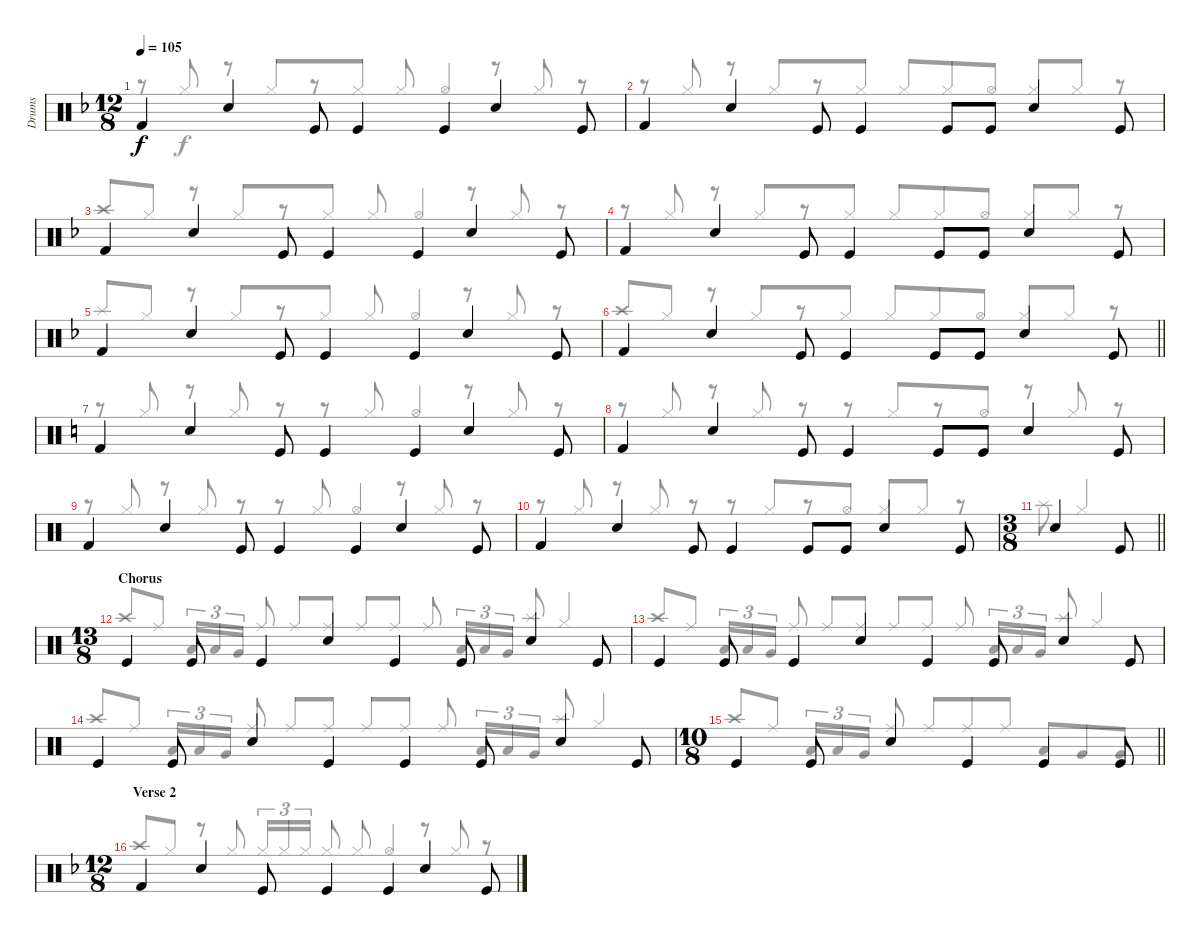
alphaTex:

\track ("Drums" "Drums") {instrument percussion}
\staff {score}
\articulation defaults
\voice
\ts (12 8)
\tempo 105
\clef neutral
\ks dminor "Kick (hit) 2".4{dy f} "Snare (hit) 2".4 "Kick (hit)".8 "Kick (hit)".4 "Kick (hit)".4 "Snare (hit) 2".4 "Kick (hit)".8
|
"Kick (hit) 2".4 "Snare (hit) 2".4 "Kick (hit)".8 "Kick (hit)".4 "Kick (hit)".8 "Kick (hit)".8 "Snare (hit) 2".4 "Kick (hit)".8 |
"Kick (hit) 2".4 "Snare (hit) 2".4 "Kick (hit)".8 "Kick (hit)".4 "Kick (hit)".4 "Snare (hit) 2".4 "Kick (hit)".8 |
"Kick (hit) 2".4 "Snare (hit) 2".4 "Kick (hit)".8 "Kick (hit)".4 "Kick (hit)".8 "Kick (hit)".8 "Snare (hit) 2".4 "Kick (hit)".8 |
"Kick (hit) 2".4 "Snare (hit) 2".4 "Kick (hit)".8 "Kick (hit)".4 "Kick (hit)".4 "Snare (hit) 2".4 "Kick (hit)".8 |
\barLineRight lightlight "Kick (hit) 2".4 "Snare (hit) 2".4 "Kick (hit)".8 "Kick (hit)".4 "Kick (hit)".8 "Kick (hit)".8 "Snare (hit) 2".4 "Kick (hit)".8
|
\ks aminor "Kick (hit) 2".4 "Snare (hit) 2".4 "Kick (hit)".8 "Kick (hit)".4 "Kick (hit)".4 "Snare (hit) 2".4 "Kick (hit)".8
|
"Kick (hit) 2".4 "Snare (hit) 2".4 "Kick (hit)".8 "Kick (hit)".4 "Kick (hit)".8 "Kick (hit)".8 "Snare (hit) 2".4 "Kick (hit)".8 |
"Kick (hit) 2".4{volume 12} "Snare (hit) 2".4 "Kick (hit)".8 "Kick (hit)".4 "Kick (hit)".4 "Snare (hit) 2".4 "Kick (hit)".8 |
"Kick (hit) 2".4 "Snare (hit) 2".4 "Kick (hit)".8 "Kick (hit)".4 "Kick (hit)".8 "Kick (hit)".8 "Snare (hit) 2".4 "Kick (hit)".8 |
\ts (3 8)
\barLineRight lightlight "Snare (hit) 2".4 "Kick (hit)".8
|
\ts (13 8)
\section ("" "Chorus")
"Kick (hit)".4 "Kick (hit)".8 "Kick (hit)".4 "Snare (hit) 2".4 "Kick (hit)".4 "Kick (hit)".8 "Snare (hit) 2".4 "Kick (hit)".8 |
"Kick (hit)".4 "Kick (hit)".8 "Kick (hit)".4 "Snare (hit) 2".4 "Kick (hit)".4 "Kick (hit)".8 "Snare (hit) 2".4 "Kick (hit)".8 |
"Kick (hit)".4 "Kick (hit)".8 "Snare (hit) 2".4 "Kick (hit)".4 "Kick (hit)".4 "Kick (hit)".8 "Snare (hit) 2".4 "Kick (hit)".8 |
\ts (10 8)
\barLineRight lightlight "Kick (hit)".4 "Kick (hit)".8 "Snare (hit) 2".4 "Kick (hit)".4 "Kick (hit)".4{volume 10} "Kick (hit)".8
|
\ts (12 8)
\section ("" "Verse 2")
\ks dminor "Kick (hit) 2".4 "Snare (hit) 2".4 "Kick (hit)".8 "Kick (hit)".4 "Kick (hit)".4 "Snare (hit) 2".4 "Kick (hit)".8
\voice
\clef neutral
\ottava regular
\simile none
\ks dminor
r.8{dy f} "Hi-Hat (closed)".8{beam Up} r.8 "Hi-Hat (closed)".8{beam Up} r.8{beam Up} "Hi-Hat (closed)".8{beam Up} "Hi-Hat (closed)".8{beam Up} "Hi-Hat (open)".4{beam Up} r.8 "Hi-Hat (closed)".8{beam Up} r.8 |
r.8 "Hi-Hat (closed)".8{beam Up} r.8 "Hi-Hat (closed)".8{beam Up} r.8{beam Up} "Hi-Hat (closed)".8{beam Up} "Hi-Hat (closed)".8{beam Up} "Hi-Hat (closed)".8{beam Up} "Hi-Hat (open)".8{beam Up} "Hi-Hat (closed)".8{beam Up} "Hi-Hat (closed)".8{beam Up} r.8{beam Up} |
"Crash high (hit)".8{beam Up} "Hi-Hat (closed)".8{beam Up} r.8 "Hi-Hat (closed)".8{beam Up} r.8{beam Up} "Hi-Hat (closed)".8{beam Up} "Hi-Hat (closed)".8{beam Up} "Hi-Hat (open)".4{beam Up} r.8 "Hi-Hat (closed)".8{beam Up} r.8 |
r.8 "Hi-Hat (closed)".8{beam Up} r.8 "Hi-Hat (closed)".8{beam Up} r.8{beam Up} "Hi-Hat (closed)".8{beam Up} "Hi-Hat (closed)".8{beam Up} "Hi-Hat (closed)".8{beam Up} "Hi-Hat (open)".8{beam Up} "Hi-Hat (closed)".8{beam Up} "Hi-Hat (closed)".8{beam Up} r.8{beam Up} |
"Splash (hit)".8{beam Up} "Hi-Hat (closed)".8{beam Up} r.8 "Hi-Hat (closed)".8{beam Up} r.8{beam Up} "Hi-Hat (closed)".8{beam Up} "Hi-Hat (closed)".8{beam Up} "Hi-Hat (open)".4{beam Up} r.8 "Hi-Hat (closed)".8{beam Up} r.8 |
\barLineRight lightlight "Crash high (hit)".8{beam Up} "Hi-Hat (closed)".8{beam Up}
r.8 "Hi-Hat (closed)".8{beam Up} r.8{beam Up} "Hi-Hat (closed)".8{beam Up} "Hi-Hat (closed)".8{beam Up} "Hi-Hat (closed)".8{beam Up} "Hi-Hat (open)".8{beam Up} "Hi-Hat (closed)".8{beam Up} "Hi-Hat (closed)".8{beam Up} r.8{beam Up} |
\ks aminor
r.8 "Hi-Hat (closed)".8{beam Up} r.8 "Hi-Hat (closed)".8{beam Up} r.8{beam Up} r.8{beam Up} "Hi-Hat (closed)".8{beam Up} "Hi-Hat (open)".4{beam Up} r.8 "Hi-Hat (closed)".8{beam Up} r.8 |
r.8 "Hi-Hat (closed)".8{beam Up} r.8 "Hi-Hat (closed)".8{beam Up} r.8{beam Up} r.8{beam Up} "Hi-Hat (closed)".8{beam Up} r.8{beam Up} "Hi-Hat (open)".8{beam Up} r.8{beam Up} "Hi-Hat (closed)".8{beam Up} r.8{beam Up} |
r.8 "Hi-Hat (closed)".8{beam Up} r.8 "Hi-Hat (closed)".8{beam Up} r.8{beam Up} r.8{beam Up} "Hi-Hat (closed)".8{beam Up} "Hi-Hat (open)".4{beam Up} r.8 "Hi-Hat (closed)".8{beam Up} r.8 |
r.8 "Hi-Hat (closed)".8{beam Up} r.8 "Hi-Hat (closed)".8{beam Up} r.8{beam Up} r.8{beam Up} "Hi-Hat (closed)".8{beam Up} r.8{beam Up} "Hi-Hat (open)".8{beam Up} "Hi-Hat (closed)".8{beam Up} "Hi-Hat (closed)".8{beam Up} r.8{beam Up} |
\barLineRight lightlight "Splash (hit)".8 "Hi-Hat (closed)".4{beam Up}
|
"Crash high (hit)".8{beam Up} "Ride (middle)".8{beam Up} "Low Tom (hit)".16{tu (3 2) beam Up} "Low Tom (hit)".16{tu (3 2) beam Up} "Very Low Tom (hit)".16{tu (3 2) beam Up} "Ride (middle)".8{beam Up} "Ride (middle)".8{beam Up} "Ride (middle)".8{beam Up} "Ride (middle)".8{beam Up} "Ride (middle)".8{beam Up} "Ride (middle)".8{beam Up} "Low Tom (hit)".16{tu (3 2) beam Up} "Low Tom (hit)".16{tu (3 2) beam Up} "Very Low Tom (hit)".16{tu (3 2) beam Up} "Splash (hit)".8{beam Up} "Hi-Hat (closed)".4{beam Up} |
"Crash high (hit)".8{beam Up} "Ride (middle)".8{beam Up} "Low Tom (hit)".16{tu (3 2) beam Up} "Low Tom (hit)".16{tu (3 2) beam Up} "Very Low Tom (hit)".16{tu (3 2) beam Up} "Ride (middle)".8{beam Up} "Ride (middle)".8{beam Up} "Ride (middle)".8{beam Up} "Ride (middle)".8{beam Up} "Ride (middle)".8{beam Up} "Ride (middle)".8{beam Up} "Low Tom (hit)".16{tu (3 2) beam Up} "Low Tom (hit)".16{tu (3 2) beam Up} "Very Low Tom (hit)".16{tu (3 2) beam Up} "Splash (hit)".8{beam Up} "Hi-Hat (closed)".4{beam Up} |
"Crash high (hit)".8{beam Up} "Ride (middle)".8{beam Up} "Low Tom (hit)".16{tu (3 2) beam Up} "Low Tom (hit)".16{tu (3 2) beam Up} "Very Low Tom (hit)".16{tu (3 2) beam Up} "Ride (middle)".8{beam Up} "Ride (middle)".8{beam Up} "Ride (middle)".8{beam Up} "Ride (middle)".8{beam Up} "Ride (middle)".8{beam Up} "Ride (middle)".8{beam Up} "Low Tom (hit)".16{tu (3 2) beam Up} "Low Tom (hit)".16{tu (3 2) beam Up} "Very Low Tom (hit)".16{tu (3 2) beam Up} "Splash (hit)".8{beam Up} "Hi-Hat (closed)".4{beam Up} |
\barLineRight lightlight "Crash high (hit)".8{beam Up} "Ride (middle)".8{beam Up} "Low Tom (hit)".16{tu (3 2) beam Up} "Low Tom (hit)".16{tu (3 2) beam Up} "Very Low Tom (hit)".16{tu (3 2) beam Up} "Ride (middle)".8{beam Up} "Ride (middle)".8{beam Up} "Ride (middle)".8{beam Up} "Ride (middle)".8{beam Up} "Low Tom (hit)".8{beam Up} "Very Low Tom (hit)".8{beam Up} "Very Low Tom (hit)".8{beam Up}
|
\ks dminor "Crash high (hit)".8{beam Up} "Hi-Hat (closed)".8{beam Up}
r.8 "Hi-Hat (closed)".8{beam Up} "Hi-Hat (closed)".16{tu (3 2) beam Up} "Hi-Hat (closed)".16{tu (3 2) beam Up} "Hi-Hat (closed)".16{tu (3 2) beam Up} "Hi-Hat (closed)".8{beam Up} "Hi-Hat (closed)".8{beam Up} "Hi-Hat (open)".4{beam Up} r.8 "Hi-Hat (closed)".8{beam Up} r.8
